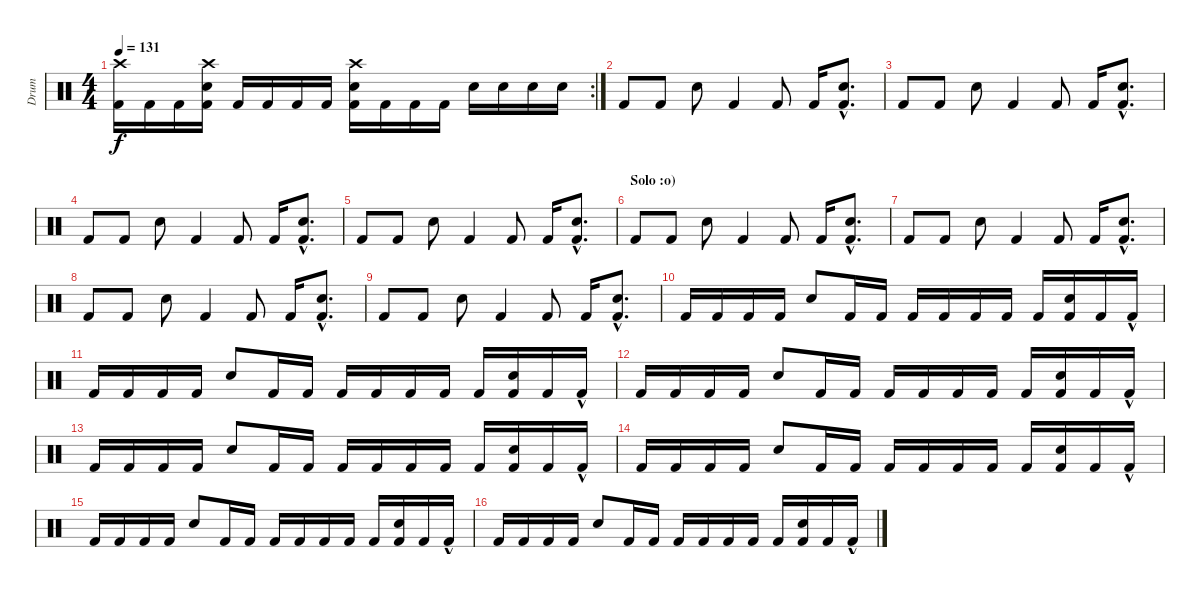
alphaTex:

\track ("Drum" "Drum") {instrument percussion}
\staff {score}
\articulation defaults
\rc 2
\ts (4 4)
\tempo 131
\clef neutral
\ks c
("Crash high (hit)" "Kick (hit) 2").16{dy f} "Kick (hit) 2".16 "Kick (hit) 2".16 ("Crash high (hit)" "Electric Snare (hit)" "Kick (hit) 2").16 "Kick (hit) 2".16 "Kick (hit) 2".16 "Kick (hit) 2".16 "Kick (hit) 2".16 ("Crash high (hit)" "Electric Snare (hit)" "Kick (hit) 2").16 "Kick (hit) 2".16 "Kick (hit) 2".16 "Kick (hit) 2".16 "Electric Snare (hit)".16 "Electric Snare (hit)".16 "Electric Snare (hit)".16 "Electric Snare (hit)".16 |
"Kick (hit) 2".8 "Kick (hit) 2".8 "Electric Snare (hit)".8 "Kick (hit) 2".4 "Kick (hit) 2".8 "Kick (hit) 2".16 ("Electric Snare (hit)"{hac} "Kick (hit) 2"{hac}).8{d} |
"Kick (hit) 2".8 "Kick (hit) 2".8 "Electric Snare (hit)".8 "Kick (hit) 2".4 "Kick (hit) 2".8 "Kick (hit) 2".16 ("Electric Snare (hit)"{hac} "Kick (hit) 2"{hac}).8{d} |
"Kick (hit) 2".8 "Kick (hit) 2".8 "Electric Snare (hit)".8 "Kick (hit) 2".4 "Kick (hit) 2".8 "Kick (hit) 2".16 ("Electric Snare (hit)"{hac} "Kick (hit) 2"{hac}).8{d} |
"Kick (hit) 2".8 "Kick (hit) 2".8 "Electric Snare (hit)".8 "Kick (hit) 2".4 "Kick (hit) 2".8 "Kick (hit) 2".16 ("Electric Snare (hit)"{hac} "Kick (hit) 2"{hac}).8{d} |
\section ("" "Solo :o)")
"Kick (hit) 2".8 "Kick (hit) 2".8 "Electric Snare (hit)".8 "Kick (hit) 2".4 "Kick (hit) 2".8 "Kick (hit) 2".16 ("Electric Snare (hit)"{hac} "Kick (hit) 2"{hac}).8{d} |
"Kick (hit) 2".8 "Kick (hit) 2".8 "Electric Snare (hit)".8 "Kick (hit) 2".4 "Kick (hit) 2".8 "Kick (hit) 2".16 ("Electric Snare (hit)"{hac} "Kick (hit) 2"{hac}).8{d} |
"Kick (hit) 2".8 "Kick (hit) 2".8 "Electric Snare (hit)".8 "Kick (hit) 2".4 "Kick (hit) 2".8 "Kick (hit) 2".16 ("Electric Snare (hit)"{hac} "Kick (hit) 2"{hac}).8{d} |
"Kick (hit) 2".8 "Kick (hit) 2".8 "Electric Snare (hit)".8 "Kick (hit) 2".4 "Kick (hit) 2".8 "Kick (hit) 2".16 ("Electric Snare (hit)"{hac} "Kick (hit) 2"{hac}).8{d} |
"Kick (hit) 2".16 "Kick (hit) 2".16 "Kick (hit) 2".16 "Kick (hit) 2".16 "Electric Snare (hit)".8 "Kick (hit) 2".16 "Kick (hit) 2".16 "Kick (hit) 2".16 "Kick (hit) 2".16 "Kick (hit) 2".16 "Kick (hit) 2".16 "Kick (hit) 2".16 ("Electric Snare (hit)" "Kick (hit) 2").16 "Kick (hit) 2".16 "Kick (hit) 2"{hac}.16 |
"Kick (hit) 2".16 "Kick (hit) 2".16 "Kick (hit) 2".16 "Kick (hit) 2".16 "Electric Snare (hit)".8 "Kick (hit) 2".16 "Kick (hit) 2".16 "Kick (hit) 2".16 "Kick (hit) 2".16 "Kick (hit) 2".16 "Kick (hit) 2".16 "Kick (hit) 2".16 ("Electric Snare (hit)" "Kick (hit) 2").16 "Kick (hit) 2".16 "Kick (hit) 2"{hac}.16 |
"Kick (hit) 2".16 "Kick (hit) 2".16 "Kick (hit) 2".16 "Kick (hit) 2".16 "Electric Snare (hit)".8 "Kick (hit) 2".16 "Kick (hit) 2".16 "Kick (hit) 2".16 "Kick (hit) 2".16 "Kick (hit) 2".16 "Kick (hit) 2".16 "Kick (hit) 2".16 ("Electric Snare (hit)" "Kick (hit) 2").16 "Kick (hit) 2".16 "Kick (hit) 2"{hac}.16 |
"Kick (hit) 2".16 "Kick (hit) 2".16 "Kick (hit) 2".16 "Kick (hit) 2".16 "Electric Snare (hit)".8 "Kick (hit) 2".16 "Kick (hit) 2".16 "Kick (hit) 2".16 "Kick (hit) 2".16 "Kick (hit) 2".16 "Kick (hit) 2".16 "Kick (hit) 2".16 ("Electric Snare (hit)" "Kick (hit) 2").16 "Kick (hit) 2".16 "Kick (hit) 2"{hac}.16 |
"Kick (hit) 2".16 "Kick (hit) 2".16 "Kick (hit) 2".16 "Kick (hit) 2".16 "Electric Snare (hit)".8 "Kick (hit) 2".16 "Kick (hit) 2".16 "Kick (hit) 2".16 "Kick (hit) 2".16 "Kick (hit) 2".16 "Kick (hit) 2".16 "Kick (hit) 2".16 ("Electric Snare (hit)" "Kick (hit) 2").16 "Kick (hit) 2".16 "Kick (hit) 2"{hac}.16 |
"Kick (hit) 2".16 "Kick (hit) 2".16 "Kick (hit) 2".16 "Kick (hit) 2".16 "Electric Snare (hit)".8 "Kick (hit) 2".16 "Kick (hit) 2".16 "Kick (hit) 2".16 "Kick (hit) 2".16 "Kick (hit) 2".16 "Kick (hit) 2".16 "Kick (hit) 2".16 ("Electric Snare (hit)" "Kick (hit) 2").16 "Kick (hit) 2".16 "Kick (hit) 2"{hac}.16 |
"Kick (hit) 2".16 "Kick (hit) 2".16 "Kick (hit) 2".16 "Kick (hit) 2".16 "Electric Snare (hit)".8 "Kick (hit) 2".16 "Kick (hit) 2".16 "Kick (hit) 2".16 "Kick (hit) 2".16 "Kick (hit) 2".16 "Kick (hit) 2".16 "Kick (hit) 2".16 ("Electric Snare (hit)" "Kick (hit) 2").16 "Kick (hit) 2".16 "Kick (hit) 2"{hac}.16
